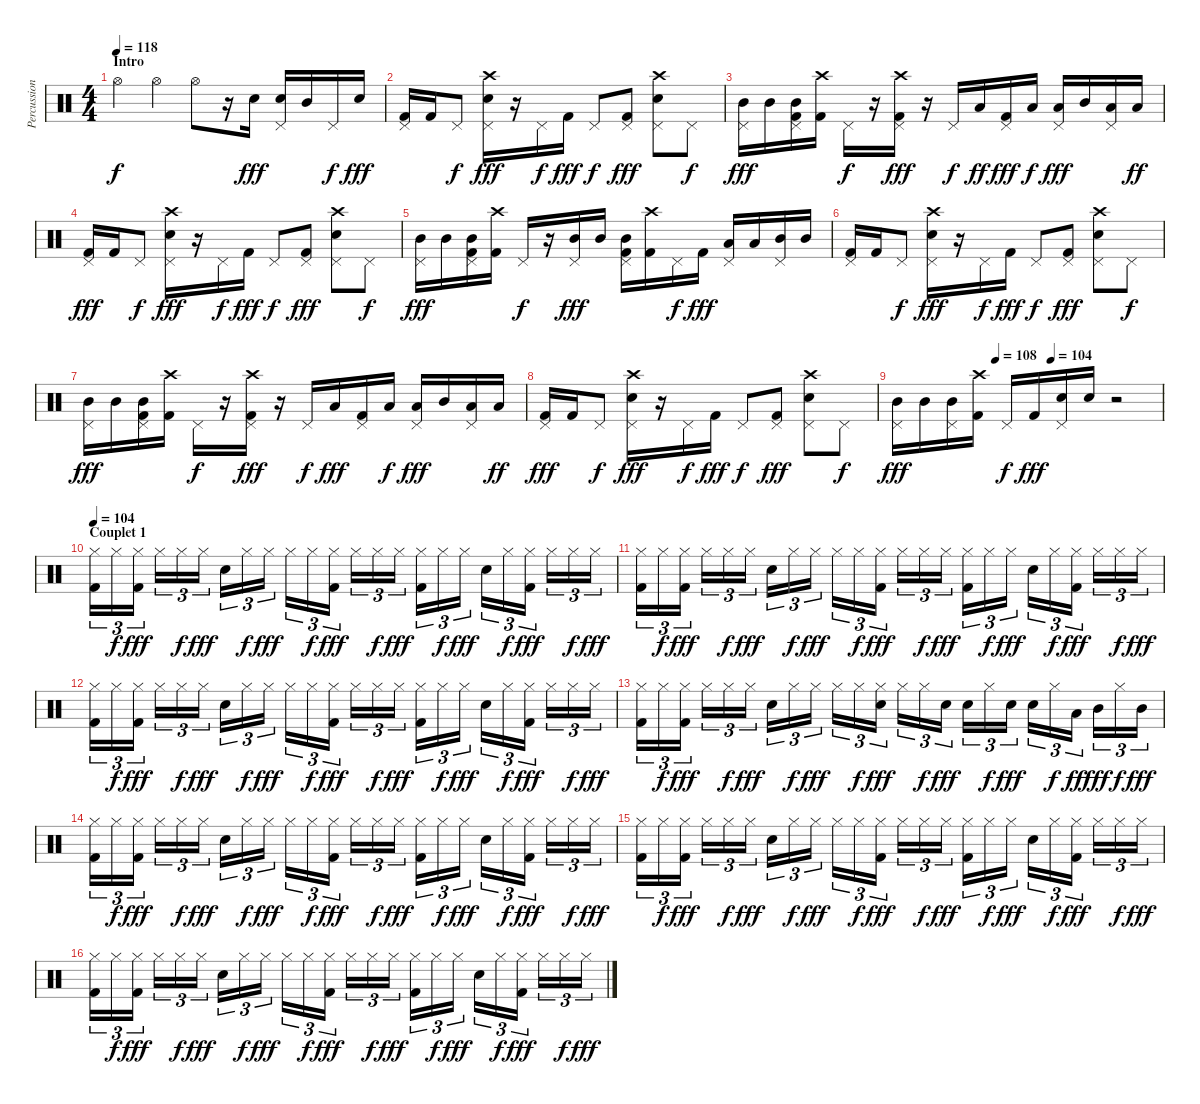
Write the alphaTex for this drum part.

\track ("Percussions" "Percussion") {instrument percussion}
\staff {score}
\articulation defaults
\ts (4 4)
\section ("" "Intro")
\tempo 118
\clef neutral
\ks c "Hi-Hat (open)".4{dy f} "Hi-Hat (open)".4 "Hi-Hat (open)".8
r.16 "Snare (hit) 2".16{dy fff} ("Pedal Hi-Hat (hit)" "Snare (hit) 2").16 "Mid Tom (hit)".16 "Pedal Hi-Hat (hit)".16{dy f} "Snare (hit) 2".16{dy fff} |
("Pedal Hi-Hat (hit)" "Kick (hit) 2").16 "Kick (hit) 2".16 "Pedal Hi-Hat (hit)".8{dy f} ("Pedal Hi-Hat (hit)" "Crash high (hit)" "Snare (hit) 2").16{dy fff} r.16 "Pedal Hi-Hat (hit)".16{dy f} "Kick (hit) 2".16{dy fff} "Pedal Hi-Hat (hit)".8{dy f} ("Pedal Hi-Hat (hit)" "Kick (hit) 2").8{dy fff} ("Pedal Hi-Hat (hit)" "Crash high (hit)" "Snare (hit) 2").8 "Pedal Hi-Hat (hit)".8{dy f} |
("Pedal Hi-Hat (hit)" "Mid Tom (hit)").16{dy fff} "Mid Tom (hit)".16 ("Pedal Hi-Hat (hit)" "Mid Tom (hit)" "Kick (hit) 2").16 ("Crash high (hit)" "Kick (hit) 2").16 "Pedal Hi-Hat (hit)".16{dy f} r.16 ("Pedal Hi-Hat (hit)" "Crash high (hit)" "Kick (hit) 2").16{dy fff} r.16 "Pedal Hi-Hat (hit)".16{dy f} "Low Tom (hit)".16{dy ff} ("Pedal Hi-Hat (hit)" "Kick (hit) 2").16{dy fff} "Low Tom (hit)".16{dy f} ("Pedal Hi-Hat (hit)" "Low Tom (hit)").16{dy fff} "Mid Tom (hit)".16 ("Pedal Hi-Hat (hit)" "Low Tom (hit)").16 "Low Floor Tom (hit)".16{dy ff} |
("Pedal Hi-Hat (hit)" "Kick (hit) 2").16{dy fff} "Kick (hit) 2".16 "Pedal Hi-Hat (hit)".8{dy f} ("Pedal Hi-Hat (hit)" "Crash high (hit)" "Snare (hit) 2").16{dy fff} r.16 "Pedal Hi-Hat (hit)".16{dy f} "Kick (hit) 2".16{dy fff} "Pedal Hi-Hat (hit)".8{dy f} ("Pedal Hi-Hat (hit)" "Kick (hit) 2").8{dy fff} ("Pedal Hi-Hat (hit)" "Crash high (hit)" "Snare (hit) 2").8 "Pedal Hi-Hat (hit)".8{dy f} |
("Pedal Hi-Hat (hit)" "Mid Tom (hit)").16{dy fff} "Mid Tom (hit)".16 ("Pedal Hi-Hat (hit)" "Mid Tom (hit)" "Kick (hit) 2").16 ("Crash high (hit)" "Kick (hit) 2").16 "Pedal Hi-Hat (hit)".16{dy f} r.16 ("Pedal Hi-Hat (hit)" "Mid Tom (hit)").16{dy fff} "Mid Tom (hit)".16 ("Pedal Hi-Hat (hit)" "Mid Tom (hit)" "Kick (hit) 2").16 ("Crash high (hit)" "Kick (hit) 2").16 "Pedal Hi-Hat (hit)".16{dy f} "Kick (hit) 2".16{dy fff} ("Pedal Hi-Hat (hit)" "Low Tom (hit)").16 "Low Tom (hit)".16 ("Pedal Hi-Hat (hit)" "Mid Tom (hit)").16 "Mid Tom (hit)".16 |
("Pedal Hi-Hat (hit)" "Kick (hit) 2").16 "Kick (hit) 2".16 "Pedal Hi-Hat (hit)".8{dy f} ("Pedal Hi-Hat (hit)" "Crash high (hit)" "Snare (hit) 2").16{dy fff} r.16 "Pedal Hi-Hat (hit)".16{dy f} "Kick (hit) 2".16{dy fff} "Pedal Hi-Hat (hit)".8{dy f} ("Pedal Hi-Hat (hit)" "Kick (hit) 2").8{dy fff} ("Pedal Hi-Hat (hit)" "Crash high (hit)" "Snare (hit) 2").8 "Pedal Hi-Hat (hit)".8{dy f} |
("Pedal Hi-Hat (hit)" "Mid Tom (hit)").16{dy fff} "Mid Tom (hit)".16 ("Pedal Hi-Hat (hit)" "Mid Tom (hit)" "Kick (hit) 2").16 ("Crash high (hit)" "Kick (hit) 2").16 "Pedal Hi-Hat (hit)".16{dy f} r.16 ("Pedal Hi-Hat (hit)" "Crash high (hit)" "Kick (hit) 2").16{dy fff} r.16 "Pedal Hi-Hat (hit)".16{dy f} "Low Tom (hit)".16{dy fff} ("Pedal Hi-Hat (hit)" "Kick (hit) 2").16 "Low Tom (hit)".16{dy f} ("Pedal Hi-Hat (hit)" "Low Tom (hit)").16{dy fff} "Mid Tom (hit)".16 ("Pedal Hi-Hat (hit)" "Low Tom (hit)").16 "Low Floor Tom (hit)".16{dy ff} |
("Pedal Hi-Hat (hit)" "Kick (hit) 2").16{dy fff} "Kick (hit) 2".16 "Pedal Hi-Hat (hit)".8{dy f} ("Pedal Hi-Hat (hit)" "Crash high (hit)" "Snare (hit) 2").16{dy fff} r.16 "Pedal Hi-Hat (hit)".16{dy f} "Kick (hit) 2".16{dy fff} "Pedal Hi-Hat (hit)".8{dy f} ("Pedal Hi-Hat (hit)" "Kick (hit) 2").8{dy fff} ("Pedal Hi-Hat (hit)" "Crash high (hit)" "Snare (hit) 2").8 "Pedal Hi-Hat (hit)".8{dy f} |
\tempo (104 0.5833333333333334)
\tempo (108 0.375)
("Pedal Hi-Hat (hit)" "Mid Tom (hit)").16{dy fff} "Mid Tom (hit)".16 ("Pedal Hi-Hat (hit)" "Mid Tom (hit)").16 ("Crash high (hit)" "Kick (hit) 2").16 "Pedal Hi-Hat (hit)".16{dy f} "Kick (hit) 2".16{dy fff} ("Pedal Hi-Hat (hit)" "Snare (hit) 2").16 "Snare (hit) 2".16 r.2 |
\section ("" "Couplet 1")
\tempo 104
("Hi-Hat (closed)" "Kick (hit) 2").16{tu (3 2)} "Hi-Hat (closed)".16{tu (3 2) dy f} ("Hi-Hat (closed)" "Kick (hit) 2").16{tu (3 2) dy fff} "Hi-Hat (closed)".16{tu (3 2)} "Hi-Hat (closed)".16{tu (3 2) dy f} "Hi-Hat (closed)".16{tu (3 2) dy fff} "Snare (hit) 2".16{tu (3 2)} "Hi-Hat (closed)".16{tu (3 2) dy f} "Hi-Hat (closed)".16{tu (3 2) dy fff} "Hi-Hat (closed)".16{tu (3 2)} "Hi-Hat (closed)".16{tu (3 2) dy f} ("Hi-Hat (closed)" "Kick (hit) 2").16{tu (3 2) dy fff} "Hi-Hat (closed)".16{tu (3 2)} "Hi-Hat (closed)".16{tu (3 2) dy f} "Hi-Hat (closed)".16{tu (3 2) dy fff} ("Hi-Hat (closed)" "Kick (hit) 2").16{tu (3 2)} "Hi-Hat (closed)".16{tu (3 2) dy f} "Hi-Hat (closed)".16{tu (3 2) dy fff} "Snare (hit) 2".16{tu (3 2)} "Hi-Hat (closed)".16{tu (3 2) dy f} ("Hi-Hat (closed)" "Kick (hit) 2").16{tu (3 2) dy fff} "Hi-Hat (closed)".16{tu (3 2)} "Hi-Hat (closed)".16{tu (3 2) dy f} "Hi-Hat (closed)".16{tu (3 2) dy fff} |
("Hi-Hat (closed)" "Kick (hit) 2").16{tu (3 2)} "Hi-Hat (closed)".16{tu (3 2) dy f} ("Hi-Hat (closed)" "Kick (hit) 2").16{tu (3 2) dy fff} "Hi-Hat (closed)".16{tu (3 2)} "Hi-Hat (closed)".16{tu (3 2) dy f} "Hi-Hat (closed)".16{tu (3 2) dy fff} "Snare (hit) 2".16{tu (3 2)} "Hi-Hat (closed)".16{tu (3 2) dy f} "Hi-Hat (closed)".16{tu (3 2) dy fff} "Hi-Hat (closed)".16{tu (3 2)} "Hi-Hat (closed)".16{tu (3 2) dy f} ("Hi-Hat (closed)" "Kick (hit) 2").16{tu (3 2) dy fff} "Hi-Hat (closed)".16{tu (3 2)} "Hi-Hat (closed)".16{tu (3 2) dy f} "Hi-Hat (closed)".16{tu (3 2) dy fff} ("Hi-Hat (closed)" "Kick (hit) 2").16{tu (3 2)} "Hi-Hat (closed)".16{tu (3 2) dy f} "Hi-Hat (closed)".16{tu (3 2) dy fff} "Snare (hit) 2".16{tu (3 2)} "Hi-Hat (closed)".16{tu (3 2) dy f} ("Hi-Hat (closed)" "Kick (hit) 2").16{tu (3 2) dy fff} "Hi-Hat (closed)".16{tu (3 2)} "Hi-Hat (closed)".16{tu (3 2) dy f} "Hi-Hat (closed)".16{tu (3 2) dy fff} |
("Hi-Hat (closed)" "Kick (hit) 2").16{tu (3 2)} "Hi-Hat (closed)".16{tu (3 2) dy f} ("Hi-Hat (closed)" "Kick (hit) 2").16{tu (3 2) dy fff} "Hi-Hat (closed)".16{tu (3 2)} "Hi-Hat (closed)".16{tu (3 2) dy f} "Hi-Hat (closed)".16{tu (3 2) dy fff} "Snare (hit) 2".16{tu (3 2)} "Hi-Hat (closed)".16{tu (3 2) dy f} "Hi-Hat (closed)".16{tu (3 2) dy fff} "Hi-Hat (closed)".16{tu (3 2)} "Hi-Hat (closed)".16{tu (3 2) dy f} ("Hi-Hat (closed)" "Kick (hit) 2").16{tu (3 2) dy fff} "Hi-Hat (closed)".16{tu (3 2)} "Hi-Hat (closed)".16{tu (3 2) dy f} "Hi-Hat (closed)".16{tu (3 2) dy fff} ("Hi-Hat (closed)" "Kick (hit) 2").16{tu (3 2)} "Hi-Hat (closed)".16{tu (3 2) dy f} "Hi-Hat (closed)".16{tu (3 2) dy fff} "Snare (hit) 2".16{tu (3 2)} "Hi-Hat (closed)".16{tu (3 2) dy f} ("Hi-Hat (closed)" "Kick (hit) 2").16{tu (3 2) dy fff} "Hi-Hat (closed)".16{tu (3 2)} "Hi-Hat (closed)".16{tu (3 2) dy f} "Hi-Hat (closed)".16{tu (3 2) dy fff} |
("Hi-Hat (closed)" "Kick (hit) 2").16{tu (3 2)} "Hi-Hat (closed)".16{tu (3 2) dy f} ("Hi-Hat (closed)" "Kick (hit) 2").16{tu (3 2) dy fff} "Hi-Hat (closed)".16{tu (3 2)} "Hi-Hat (closed)".16{tu (3 2) dy f} "Hi-Hat (closed)".16{tu (3 2) dy fff} "Snare (hit) 2".16{tu (3 2)} "Hi-Hat (closed)".16{tu (3 2) dy f} "Hi-Hat (closed)".16{tu (3 2) dy fff} "Hi-Hat (closed)".16{tu (3 2)} "Hi-Hat (closed)".16{tu (3 2) dy f} ("Hi-Hat (closed)" "Snare (hit) 2").16{tu (3 2) dy fff} "Hi-Hat (closed)".16{tu (3 2)} "Hi-Hat (closed)".16{tu (3 2) dy f} "Snare (hit) 2".16{tu (3 2) dy fff} "Snare (hit) 2".16{tu (3 2)} "Hi-Hat (closed)".16{tu (3 2) dy f} "Snare (hit) 2".16{tu (3 2) dy fff} "Snare (hit) 2".16{tu (3 2)} "Hi-Hat (closed)".16{tu (3 2) dy f} "Low Tom (hit)".16{tu (3 2) dy ff} "Mid Tom (hit)".16{tu (3 2) dy fff} "Hi-Hat (closed)".16{tu (3 2) dy f} "Mid Tom (hit)".16{tu (3 2) dy fff} |
("Hi-Hat (closed)" "Kick (hit) 2").16{tu (3 2)} "Hi-Hat (closed)".16{tu (3 2) dy f} ("Hi-Hat (closed)" "Kick (hit) 2").16{tu (3 2) dy fff} "Hi-Hat (closed)".16{tu (3 2)} "Hi-Hat (closed)".16{tu (3 2) dy f} "Hi-Hat (closed)".16{tu (3 2) dy fff} "Snare (hit) 2".16{tu (3 2)} "Hi-Hat (closed)".16{tu (3 2) dy f} "Hi-Hat (closed)".16{tu (3 2) dy fff} "Hi-Hat (closed)".16{tu (3 2)} "Hi-Hat (closed)".16{tu (3 2) dy f} ("Hi-Hat (closed)" "Kick (hit) 2").16{tu (3 2) dy fff} "Hi-Hat (closed)".16{tu (3 2)} "Hi-Hat (closed)".16{tu (3 2) dy f} "Hi-Hat (closed)".16{tu (3 2) dy fff} ("Hi-Hat (closed)" "Kick (hit) 2").16{tu (3 2)} "Hi-Hat (closed)".16{tu (3 2) dy f} "Hi-Hat (closed)".16{tu (3 2) dy fff} "Snare (hit) 2".16{tu (3 2)} "Hi-Hat (closed)".16{tu (3 2) dy f} ("Hi-Hat (closed)" "Kick (hit) 2").16{tu (3 2) dy fff} "Hi-Hat (closed)".16{tu (3 2)} "Hi-Hat (closed)".16{tu (3 2) dy f} "Hi-Hat (closed)".16{tu (3 2) dy fff} |
("Hi-Hat (closed)" "Kick (hit) 2").16{tu (3 2)} "Hi-Hat (closed)".16{tu (3 2) dy f} ("Hi-Hat (closed)" "Kick (hit) 2").16{tu (3 2) dy fff} "Hi-Hat (closed)".16{tu (3 2)} "Hi-Hat (closed)".16{tu (3 2) dy f} "Hi-Hat (closed)".16{tu (3 2) dy fff} "Snare (hit) 2".16{tu (3 2)} "Hi-Hat (closed)".16{tu (3 2) dy f} "Hi-Hat (closed)".16{tu (3 2) dy fff} "Hi-Hat (closed)".16{tu (3 2)} "Hi-Hat (closed)".16{tu (3 2) dy f} ("Hi-Hat (closed)" "Kick (hit) 2").16{tu (3 2) dy fff} "Hi-Hat (closed)".16{tu (3 2)} "Hi-Hat (closed)".16{tu (3 2) dy f} "Hi-Hat (closed)".16{tu (3 2) dy fff} ("Hi-Hat (closed)" "Kick (hit) 2").16{tu (3 2)} "Hi-Hat (closed)".16{tu (3 2) dy f} "Hi-Hat (closed)".16{tu (3 2) dy fff} "Snare (hit) 2".16{tu (3 2)} "Hi-Hat (closed)".16{tu (3 2) dy f} ("Hi-Hat (closed)" "Kick (hit) 2").16{tu (3 2) dy fff} "Hi-Hat (closed)".16{tu (3 2)} "Hi-Hat (closed)".16{tu (3 2) dy f} "Hi-Hat (closed)".16{tu (3 2) dy fff} |
("Hi-Hat (closed)" "Kick (hit) 2").16{tu (3 2)} "Hi-Hat (closed)".16{tu (3 2) dy f} ("Hi-Hat (closed)" "Kick (hit) 2").16{tu (3 2) dy fff} "Hi-Hat (closed)".16{tu (3 2)} "Hi-Hat (closed)".16{tu (3 2) dy f} "Hi-Hat (closed)".16{tu (3 2) dy fff} "Snare (hit) 2".16{tu (3 2)} "Hi-Hat (closed)".16{tu (3 2) dy f} "Hi-Hat (closed)".16{tu (3 2) dy fff} "Hi-Hat (closed)".16{tu (3 2)} "Hi-Hat (closed)".16{tu (3 2) dy f} ("Hi-Hat (closed)" "Kick (hit) 2").16{tu (3 2) dy fff} "Hi-Hat (closed)".16{tu (3 2)} "Hi-Hat (closed)".16{tu (3 2) dy f} "Hi-Hat (closed)".16{tu (3 2) dy fff} ("Hi-Hat (closed)" "Kick (hit) 2").16{tu (3 2)} "Hi-Hat (closed)".16{tu (3 2) dy f} "Hi-Hat (closed)".16{tu (3 2) dy fff} "Snare (hit) 2".16{tu (3 2)} "Hi-Hat (closed)".16{tu (3 2) dy f} ("Hi-Hat (closed)" "Kick (hit) 2").16{tu (3 2) dy fff} "Hi-Hat (closed)".16{tu (3 2)} "Hi-Hat (closed)".16{tu (3 2) dy f} "Hi-Hat (closed)".16{tu (3 2) dy fff}
